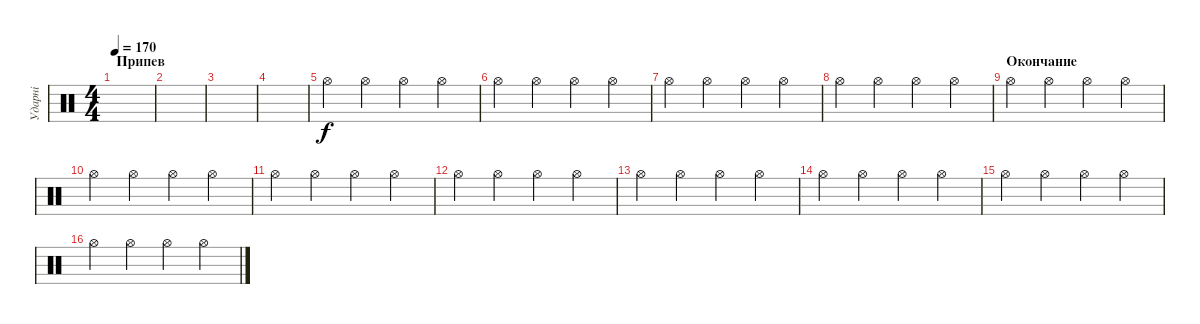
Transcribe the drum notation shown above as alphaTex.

\track ("Ударні" "Ударні") {instrument percussion}
\staff {score}
\articulation defaults
\ts (4 4)
\section ("" "Припев")
\tempo 170
\clef neutral
\ks c
|
|
|
|
"Hi-Hat (open)".4 "Hi-Hat (open)".4 "Hi-Hat (open)".4 "Hi-Hat (open)".4 |
"Hi-Hat (open)".4 "Hi-Hat (open)".4 "Hi-Hat (open)".4 "Hi-Hat (open)".4 |
"Hi-Hat (open)".4 "Hi-Hat (open)".4 "Hi-Hat (open)".4 "Hi-Hat (open)".4 |
"Hi-Hat (open)".4 "Hi-Hat (open)".4 "Hi-Hat (open)".4 "Hi-Hat (open)".4 |
\section ("" "Окончание")
"Hi-Hat (open)".4 "Hi-Hat (open)".4 "Hi-Hat (open)".4 "Hi-Hat (open)".4 |
"Hi-Hat (open)".4 "Hi-Hat (open)".4 "Hi-Hat (open)".4 "Hi-Hat (open)".4 |
"Hi-Hat (open)".4 "Hi-Hat (open)".4 "Hi-Hat (open)".4 "Hi-Hat (open)".4 |
"Hi-Hat (open)".4 "Hi-Hat (open)".4 "Hi-Hat (open)".4 "Hi-Hat (open)".4 |
"Hi-Hat (open)".4 "Hi-Hat (open)".4 "Hi-Hat (open)".4 "Hi-Hat (open)".4 |
"Hi-Hat (open)".4 "Hi-Hat (open)".4 "Hi-Hat (open)".4 "Hi-Hat (open)".4 |
"Hi-Hat (open)".4 "Hi-Hat (open)".4 "Hi-Hat (open)".4 "Hi-Hat (open)".4 |
"Hi-Hat (open)".4 "Hi-Hat (open)".4 "Hi-Hat (open)".4 "Hi-Hat (open)".4
